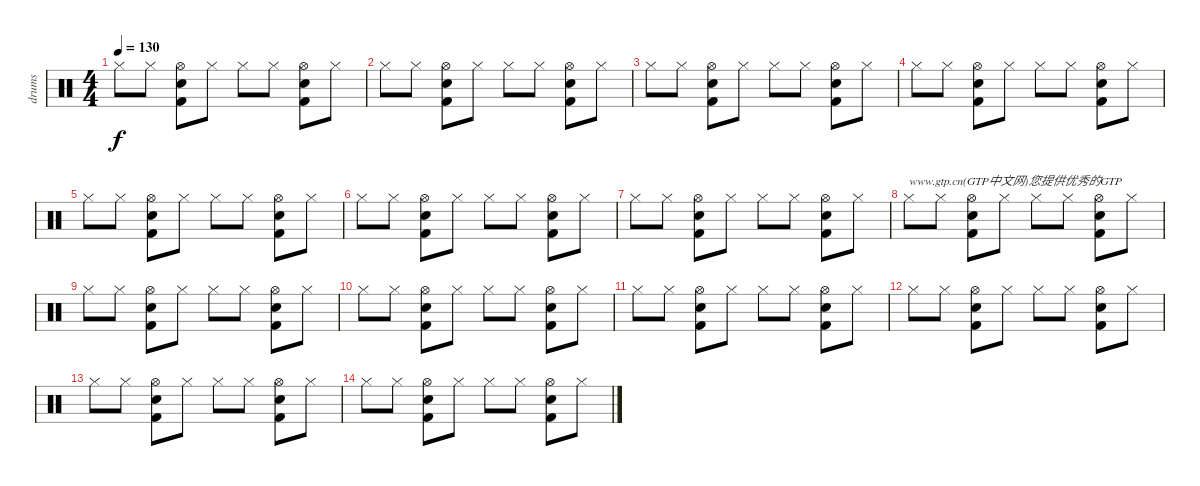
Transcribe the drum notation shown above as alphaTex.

\track ("drums" "drums") {instrument percussion}
\staff {score}
\articulation defaults
\ts (4 4)
\tempo 130
\clef neutral
\ks c "Hi-Hat (closed)".8{dy f} "Hi-Hat (closed)".8
("Snare (hit) 2" "Hi-Hat (open)" "Kick (hit) 2").8 "Hi-Hat (closed)".8 "Hi-Hat (closed)".8 "Hi-Hat (closed)".8 ("Snare (hit) 2" "Hi-Hat (open)" "Kick (hit) 2").8 "Hi-Hat (closed)".8 |
"Hi-Hat (closed)".8 "Hi-Hat (closed)".8 ("Snare (hit) 2" "Hi-Hat (open)" "Kick (hit) 2").8 "Hi-Hat (closed)".8 "Hi-Hat (closed)".8 "Hi-Hat (closed)".8 ("Snare (hit) 2" "Hi-Hat (open)" "Kick (hit) 2").8 "Hi-Hat (closed)".8 |
"Hi-Hat (closed)".8 "Hi-Hat (closed)".8 ("Snare (hit) 2" "Hi-Hat (open)" "Kick (hit) 2").8 "Hi-Hat (closed)".8 "Hi-Hat (closed)".8 "Hi-Hat (closed)".8 ("Snare (hit) 2" "Hi-Hat (open)" "Kick (hit) 2").8 "Hi-Hat (closed)".8 |
"Hi-Hat (closed)".8 "Hi-Hat (closed)".8 ("Snare (hit) 2" "Hi-Hat (open)" "Kick (hit) 2").8 "Hi-Hat (closed)".8 "Hi-Hat (closed)".8 "Hi-Hat (closed)".8 ("Snare (hit) 2" "Hi-Hat (open)" "Kick (hit) 2").8 "Hi-Hat (closed)".8 |
"Hi-Hat (closed)".8 "Hi-Hat (closed)".8 ("Snare (hit) 2" "Hi-Hat (open)" "Kick (hit) 2").8 "Hi-Hat (closed)".8 "Hi-Hat (closed)".8 "Hi-Hat (closed)".8 ("Snare (hit) 2" "Hi-Hat (open)" "Kick (hit) 2").8 "Hi-Hat (closed)".8 |
"Hi-Hat (closed)".8 "Hi-Hat (closed)".8 ("Snare (hit) 2" "Hi-Hat (open)" "Kick (hit) 2").8 "Hi-Hat (closed)".8 "Hi-Hat (closed)".8 "Hi-Hat (closed)".8 ("Snare (hit) 2" "Hi-Hat (open)" "Kick (hit) 2").8 "Hi-Hat (closed)".8 |
"Hi-Hat (closed)".8 "Hi-Hat (closed)".8 ("Snare (hit) 2" "Hi-Hat (open)" "Kick (hit) 2").8 "Hi-Hat (closed)".8 "Hi-Hat (closed)".8 "Hi-Hat (closed)".8 ("Snare (hit) 2" "Hi-Hat (open)" "Kick (hit) 2").8 "Hi-Hat (closed)".8 |
"Hi-Hat (closed)".8{txt "www.gtp.cn(GTP中文网)您提供优秀的GTP"} "Hi-Hat (closed)".8 ("Snare (hit) 2" "Hi-Hat (open)" "Kick (hit) 2").8 "Hi-Hat (closed)".8 "Hi-Hat (closed)".8 "Hi-Hat (closed)".8 ("Snare (hit) 2" "Hi-Hat (open)" "Kick (hit) 2").8 "Hi-Hat (closed)".8 |
"Hi-Hat (closed)".8 "Hi-Hat (closed)".8 ("Snare (hit) 2" "Hi-Hat (open)" "Kick (hit) 2").8 "Hi-Hat (closed)".8 "Hi-Hat (closed)".8 "Hi-Hat (closed)".8 ("Snare (hit) 2" "Hi-Hat (open)" "Kick (hit) 2").8 "Hi-Hat (closed)".8 |
"Hi-Hat (closed)".8 "Hi-Hat (closed)".8 ("Snare (hit) 2" "Hi-Hat (open)" "Kick (hit) 2").8 "Hi-Hat (closed)".8 "Hi-Hat (closed)".8 "Hi-Hat (closed)".8 ("Snare (hit) 2" "Hi-Hat (open)" "Kick (hit) 2").8 "Hi-Hat (closed)".8 |
"Hi-Hat (closed)".8 "Hi-Hat (closed)".8 ("Snare (hit) 2" "Hi-Hat (open)" "Kick (hit) 2").8 "Hi-Hat (closed)".8 "Hi-Hat (closed)".8 "Hi-Hat (closed)".8 ("Snare (hit) 2" "Hi-Hat (open)" "Kick (hit) 2").8 "Hi-Hat (closed)".8 |
"Hi-Hat (closed)".8 "Hi-Hat (closed)".8 ("Snare (hit) 2" "Hi-Hat (open)" "Kick (hit) 2").8 "Hi-Hat (closed)".8 "Hi-Hat (closed)".8 "Hi-Hat (closed)".8 ("Snare (hit) 2" "Hi-Hat (open)" "Kick (hit) 2").8 "Hi-Hat (closed)".8 |
"Hi-Hat (closed)".8 "Hi-Hat (closed)".8 ("Snare (hit) 2" "Hi-Hat (open)" "Kick (hit) 2").8 "Hi-Hat (closed)".8 "Hi-Hat (closed)".8 "Hi-Hat (closed)".8 ("Snare (hit) 2" "Hi-Hat (open)" "Kick (hit) 2").8 "Hi-Hat (closed)".8 |
"Hi-Hat (closed)".8 "Hi-Hat (closed)".8 ("Snare (hit) 2" "Hi-Hat (open)" "Kick (hit) 2").8 "Hi-Hat (closed)".8 "Hi-Hat (closed)".8 "Hi-Hat (closed)".8 ("Snare (hit) 2" "Hi-Hat (open)" "Kick (hit) 2").8 "Hi-Hat (closed)".8
